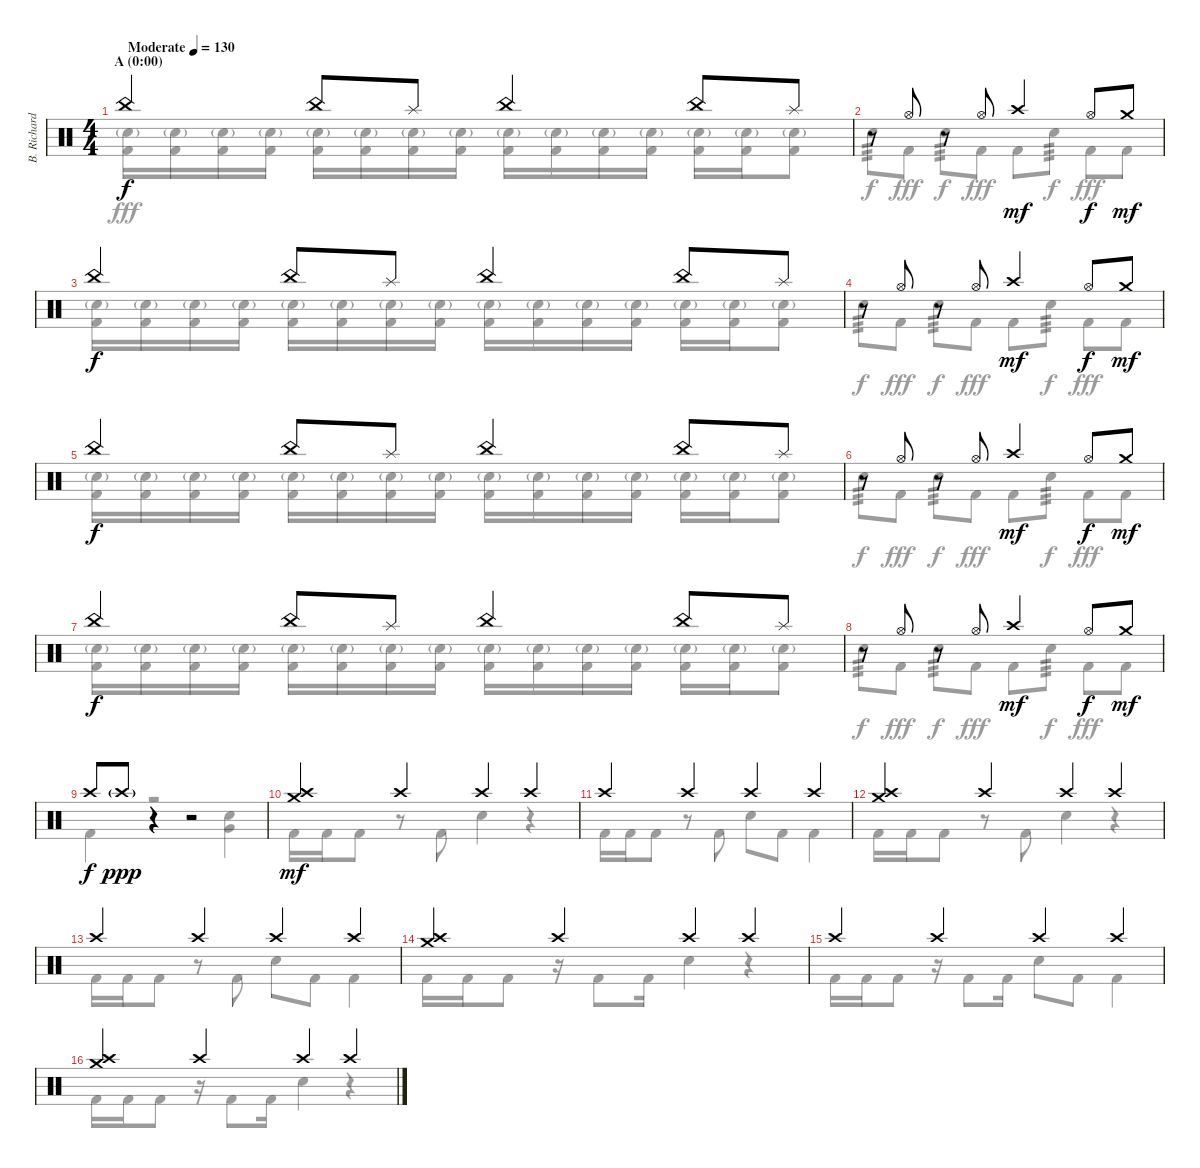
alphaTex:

\track ("B. Richardson Drums" "B. Richard") {instrument percussion}
\staff {score}
\articulation defaults
\voice
\ts (4 4)
\section ("" "A (0:00)")
\tempo (130 "Moderate")
\clef neutral
\ks c "China (hit)".4{dy f} "China (hit)".8 "Splash (hit)".8 "China (hit)".4 "China (hit)".8 "Splash (hit)".8
|
r.8 "Hi-Hat (open)".8 r.8 "Hi-Hat (open)".8 "Crash high (hit)".4{dy mf} "Hi-Hat (open)".8{dy f} "Crash medium (hit)".8{dy mf} |
"China (hit)".4{dy f} "China (hit)".8 "Splash (hit)".8 "China (hit)".4 "China (hit)".8 "Splash (hit)".8 |
r.8 "Hi-Hat (open)".8 r.8 "Hi-Hat (open)".8 "Crash high (hit)".4{dy mf} "Hi-Hat (open)".8{dy f} "Crash medium (hit)".8{dy mf} |
"China (hit)".4{dy f} "China (hit)".8 "Splash (hit)".8 "China (hit)".4 "China (hit)".8 "Splash (hit)".8 |
r.8 "Hi-Hat (open)".8 r.8 "Hi-Hat (open)".8 "Crash high (hit)".4{dy mf} "Hi-Hat (open)".8{dy f} "Crash medium (hit)".8{dy mf} |
"China (hit)".4{dy f} "China (hit)".8 "Splash (hit)".8 "China (hit)".4 "China (hit)".8 "Splash (hit)".8 |
r.8 "Hi-Hat (open)".8 r.8 "Hi-Hat (open)".8 "Crash high (hit)".4{dy mf} "Hi-Hat (open)".8{dy f} "Crash medium (hit)".8{dy mf} |
"Crash high (hit)".8{dy f} "Crash high (hit)"{g}.8{dy ppp} r.4 r.2 |
("Crash high (hit)" "Crash medium (hit)").4{dy mf} "Crash high (hit)".4 "Crash high (hit)".4 "Crash high (hit)".4 |
"Crash high (hit)".4 "Crash high (hit)".4 "Crash high (hit)".4 "Crash high (hit)".4 |
("Crash high (hit)" "Crash medium (hit)").4 "Crash high (hit)".4 "Crash high (hit)".4 "Crash high (hit)".4 |
"Crash high (hit)".4 "Crash high (hit)".4 "Crash high (hit)".4 "Crash high (hit)".4 |
("Crash high (hit)" "Crash medium (hit)").4 "Crash high (hit)".4 "Crash high (hit)".4 "Crash high (hit)".4 |
"Crash high (hit)".4 "Crash high (hit)".4 "Crash high (hit)".4 "Crash high (hit)".4 |
("Crash high (hit)" "Crash medium (hit)").4 "Crash high (hit)".4 "Crash high (hit)".4 "Crash high (hit)".4
\voice
\clef neutral
\ottava regular
\simile none
\ks c
("Electric Snare (hit)"{g} "Kick (hit) 2").16{dy fff} ("Electric Snare (hit)"{g} "Kick (hit) 2").16 ("Electric Snare (hit)"{g} "Kick (hit) 2").16 ("Electric Snare (hit)"{g} "Kick (hit) 2").16 ("Electric Snare (hit)"{g} "Kick (hit) 2").16 ("Electric Snare (hit)"{g} "Kick (hit) 2").16 ("Electric Snare (hit)"{g} "Kick (hit) 2").16 ("Electric Snare (hit)"{g} "Kick (hit) 2").16 ("Electric Snare (hit)"{g} "Kick (hit) 2").16 ("Electric Snare (hit)"{g} "Kick (hit) 2").16 ("Electric Snare (hit)"{g} "Kick (hit) 2").16 ("Electric Snare (hit)"{g} "Kick (hit) 2").16 ("Electric Snare (hit)"{g} "Kick (hit) 2").16 ("Electric Snare (hit)"{g} "Kick (hit) 2").16 ("Electric Snare (hit)"{g} "Kick (hit) 2").8 |
"Electric Snare (hit)".8{tp 3 dy f} "Kick (hit) 2".8{dy fff} "Electric Snare (hit)".8{tp 3 dy f} "Kick (hit) 2".8{dy fff} "Kick (hit) 2".8 "Electric Snare (hit)".8{tp 3 dy f} "Kick (hit) 2".8{dy fff} "Kick (hit) 2".8 |
("Electric Snare (hit)"{g} "Kick (hit) 2").16 ("Electric Snare (hit)"{g} "Kick (hit) 2").16 ("Electric Snare (hit)"{g} "Kick (hit) 2").16 ("Electric Snare (hit)"{g} "Kick (hit) 2").16 ("Electric Snare (hit)"{g} "Kick (hit) 2").16 ("Electric Snare (hit)"{g} "Kick (hit) 2").16 ("Electric Snare (hit)"{g} "Kick (hit) 2").16 ("Electric Snare (hit)"{g} "Kick (hit) 2").16 ("Electric Snare (hit)"{g} "Kick (hit) 2").16 ("Electric Snare (hit)"{g} "Kick (hit) 2").16 ("Electric Snare (hit)"{g} "Kick (hit) 2").16 ("Electric Snare (hit)"{g} "Kick (hit) 2").16 ("Electric Snare (hit)"{g} "Kick (hit) 2").16 ("Electric Snare (hit)"{g} "Kick (hit) 2").16 ("Electric Snare (hit)"{g} "Kick (hit) 2").8 |
"Electric Snare (hit)".8{tp 3 dy f} "Kick (hit) 2".8{dy fff} "Electric Snare (hit)".8{tp 3 dy f} "Kick (hit) 2".8{dy fff} "Kick (hit) 2".8 "Electric Snare (hit)".8{tp 3 dy f} "Kick (hit) 2".8{dy fff} "Kick (hit) 2".8 |
("Electric Snare (hit)"{g} "Kick (hit) 2").16 ("Electric Snare (hit)"{g} "Kick (hit) 2").16 ("Electric Snare (hit)"{g} "Kick (hit) 2").16 ("Electric Snare (hit)"{g} "Kick (hit) 2").16 ("Electric Snare (hit)"{g} "Kick (hit) 2").16 ("Electric Snare (hit)"{g} "Kick (hit) 2").16 ("Electric Snare (hit)"{g} "Kick (hit) 2").16 ("Electric Snare (hit)"{g} "Kick (hit) 2").16 ("Electric Snare (hit)"{g} "Kick (hit) 2").16 ("Electric Snare (hit)"{g} "Kick (hit) 2").16 ("Electric Snare (hit)"{g} "Kick (hit) 2").16 ("Electric Snare (hit)"{g} "Kick (hit) 2").16 ("Electric Snare (hit)"{g} "Kick (hit) 2").16 ("Electric Snare (hit)"{g} "Kick (hit) 2").16 ("Electric Snare (hit)"{g} "Kick (hit) 2").8 |
"Electric Snare (hit)".8{tp 3 dy f} "Kick (hit) 2".8{dy fff} "Electric Snare (hit)".8{tp 3 dy f} "Kick (hit) 2".8{dy fff} "Kick (hit) 2".8 "Electric Snare (hit)".8{tp 3 dy f} "Kick (hit) 2".8{dy fff} "Kick (hit) 2".8 |
("Electric Snare (hit)"{g} "Kick (hit) 2").16 ("Electric Snare (hit)"{g} "Kick (hit) 2").16 ("Electric Snare (hit)"{g} "Kick (hit) 2").16 ("Electric Snare (hit)"{g} "Kick (hit) 2").16 ("Electric Snare (hit)"{g} "Kick (hit) 2").16 ("Electric Snare (hit)"{g} "Kick (hit) 2").16 ("Electric Snare (hit)"{g} "Kick (hit) 2").16 ("Electric Snare (hit)"{g} "Kick (hit) 2").16 ("Electric Snare (hit)"{g} "Kick (hit) 2").16 ("Electric Snare (hit)"{g} "Kick (hit) 2").16 ("Electric Snare (hit)"{g} "Kick (hit) 2").16 ("Electric Snare (hit)"{g} "Kick (hit) 2").16 ("Electric Snare (hit)"{g} "Kick (hit) 2").16 ("Electric Snare (hit)"{g} "Kick (hit) 2").16 ("Electric Snare (hit)"{g} "Kick (hit) 2").8 |
"Electric Snare (hit)".8{tp 3 dy f} "Kick (hit) 2".8{dy fff} "Electric Snare (hit)".8{tp 3 dy f} "Kick (hit) 2".8{dy fff} "Kick (hit) 2".8 "Electric Snare (hit)".8{tp 3 dy f} "Kick (hit) 2".8{dy fff} "Kick (hit) 2".8 |
"Kick (hit) 2".4 r.2 ("Electric Snare (hit)" "Very Low Tom (hit)").4 |
"Kick (hit) 2".16 "Kick (hit) 2".16 "Kick (hit) 2".8 r.8 "Kick (hit) 2".8 "Electric Snare (hit)".4 r.4 |
"Kick (hit) 2".16 "Kick (hit) 2".16 "Kick (hit) 2".8 r.8 "Kick (hit) 2".8 "Electric Snare (hit)".8 "Kick (hit) 2".8 "Kick (hit) 2".4 |
"Kick (hit) 2".16 "Kick (hit) 2".16 "Kick (hit) 2".8 r.8 "Kick (hit) 2".8 "Electric Snare (hit)".4 r.4 |
"Kick (hit) 2".16 "Kick (hit) 2".16 "Kick (hit) 2".8 r.8 "Kick (hit) 2".8 "Electric Snare (hit)".8 "Kick (hit) 2".8 "Kick (hit) 2".4 |
"Kick (hit) 2".16 "Kick (hit) 2".16 "Kick (hit) 2".8 r.16 "Kick (hit) 2".8 "Kick (hit) 2".16 "Electric Snare (hit)".4 r.4 |
"Kick (hit) 2".16 "Kick (hit) 2".16 "Kick (hit) 2".8 r.16 "Kick (hit) 2".8 "Kick (hit) 2".16 "Electric Snare (hit)".8 "Kick (hit) 2".8 "Kick (hit) 2".4 |
"Kick (hit) 2".16 "Kick (hit) 2".16 "Kick (hit) 2".8 r.16 "Kick (hit) 2".8 "Kick (hit) 2".16 "Electric Snare (hit)".4 r.4
